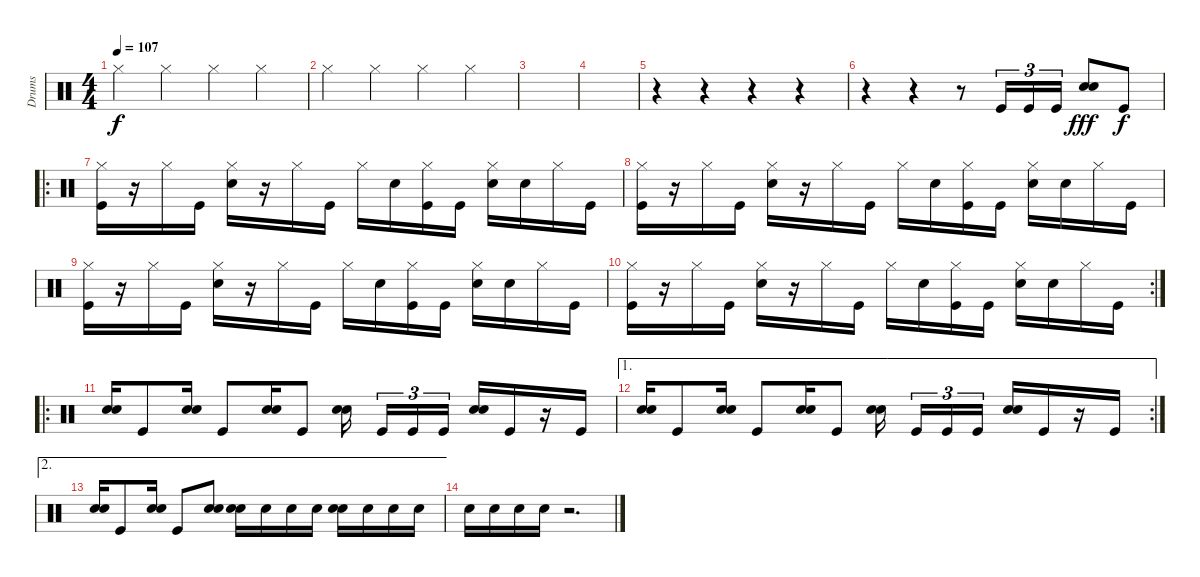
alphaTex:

\track ("Drums" "Drums") {instrument percussion}
\staff {score}
\articulation defaults
\ts (4 4)
\tempo 107
\clef neutral
\ks c "Hi-Hat (closed)".4{dy f} "Hi-Hat (closed)".4 "Hi-Hat (closed)".4 "Hi-Hat (closed)".4
|
"Hi-Hat (closed)".4 "Hi-Hat (closed)".4 "Hi-Hat (closed)".4 "Hi-Hat (closed)".4 |
|
|
r.4 r.4 r.4 r.4 |
r.4 r.4 r.8 "Kick (hit)".16{tu (3 2)} "Kick (hit)".16{tu (3 2)} "Kick (hit)".16{tu (3 2)} ("Snare (hit) 2" "Snare (hit) 2").8{dy fff} "Kick (hit)".8{dy f} |
\ro
("Hi-Hat (closed)" "Kick (hit)").16 r.16 "Hi-Hat (closed)".16 "Kick (hit)".16 ("Hi-Hat (closed)" "Snare (hit) 2").16 r.16 "Hi-Hat (closed)".16 "Kick (hit)".16 "Hi-Hat (closed)".16 "Snare (hit) 2".16 ("Hi-Hat (closed)" "Kick (hit)").16 "Kick (hit)".16 ("Hi-Hat (closed)" "Snare (hit) 2").16 "Snare (hit) 2".16 "Hi-Hat (closed)".16 "Kick (hit)".16 |
("Hi-Hat (closed)" "Kick (hit)").16 r.16 "Hi-Hat (closed)".16 "Kick (hit)".16 ("Hi-Hat (closed)" "Snare (hit) 2").16 r.16 "Hi-Hat (closed)".16 "Kick (hit)".16 "Hi-Hat (closed)".16 "Snare (hit) 2".16 ("Hi-Hat (closed)" "Kick (hit)").16 "Kick (hit)".16 ("Hi-Hat (closed)" "Snare (hit) 2").16 "Snare (hit) 2".16 "Hi-Hat (closed)".16 "Kick (hit)".16 |
("Hi-Hat (closed)" "Kick (hit)").16 r.16 "Hi-Hat (closed)".16 "Kick (hit)".16 ("Hi-Hat (closed)" "Snare (hit) 2").16 r.16 "Hi-Hat (closed)".16 "Kick (hit)".16 "Hi-Hat (closed)".16 "Snare (hit) 2".16 ("Hi-Hat (closed)" "Kick (hit)").16 "Kick (hit)".16 ("Hi-Hat (closed)" "Snare (hit) 2").16 "Snare (hit) 2".16 "Hi-Hat (closed)".16 "Kick (hit)".16 |
\rc 2
("Hi-Hat (closed)" "Kick (hit)").16 r.16 "Hi-Hat (closed)".16 "Kick (hit)".16 ("Hi-Hat (closed)" "Snare (hit) 2").16 r.16 "Hi-Hat (closed)".16 "Kick (hit)".16 "Hi-Hat (closed)".16 "Snare (hit) 2".16 ("Hi-Hat (closed)" "Kick (hit)").16 "Kick (hit)".16 ("Hi-Hat (closed)" "Snare (hit) 2").16 "Snare (hit) 2".16 "Hi-Hat (closed)".16 "Kick (hit)".16 |
\ro
("Snare (hit) 2" "Snare (hit) 2").16 "Kick (hit)".8 ("Snare (hit) 2" "Snare (hit) 2").16 "Kick (hit)".8 ("Snare (hit) 2" "Snare (hit) 2").16 "Kick (hit)".8 ("Snare (hit) 2" "Snare (hit) 2").16 "Kick (hit)".16{tu (3 2)} "Kick (hit)".16{tu (3 2)} "Kick (hit)".16{tu (3 2)} ("Snare (hit) 2" "Snare (hit) 2").16 "Kick (hit)".16 r.16 "Kick (hit)".16 |
\ae 1
\rc 2
("Snare (hit) 2" "Snare (hit) 2").16 "Kick (hit)".8 ("Snare (hit) 2" "Snare (hit) 2").16 "Kick (hit)".8 ("Snare (hit) 2" "Snare (hit) 2").16 "Kick (hit)".8 ("Snare (hit) 2" "Snare (hit) 2").16 "Kick (hit)".16{tu (3 2)} "Kick (hit)".16{tu (3 2)} "Kick (hit)".16{tu (3 2)} ("Snare (hit) 2" "Snare (hit) 2").16 "Kick (hit)".16 r.16 "Kick (hit)".16 |
\ae 2
("Snare (hit) 2" "Snare (hit) 2").16 "Kick (hit)".8 ("Snare (hit) 2" "Snare (hit) 2").16 "Kick (hit)".8 ("Snare (hit) 2" "Snare (hit) 2").8 ("Snare (hit) 2" "Snare (hit) 2").16 "Snare (hit) 2".16 "Snare (hit) 2".16 "Snare (hit) 2".16 ("Snare (hit) 2" "Snare (hit) 2").16 "Snare (hit) 2".16 "Snare (hit) 2".16 "Snare (hit) 2".16 |
"Snare (hit) 2".16 "Snare (hit) 2".16 "Snare (hit) 2".16 "Snare (hit) 2".16 r.2{d}
